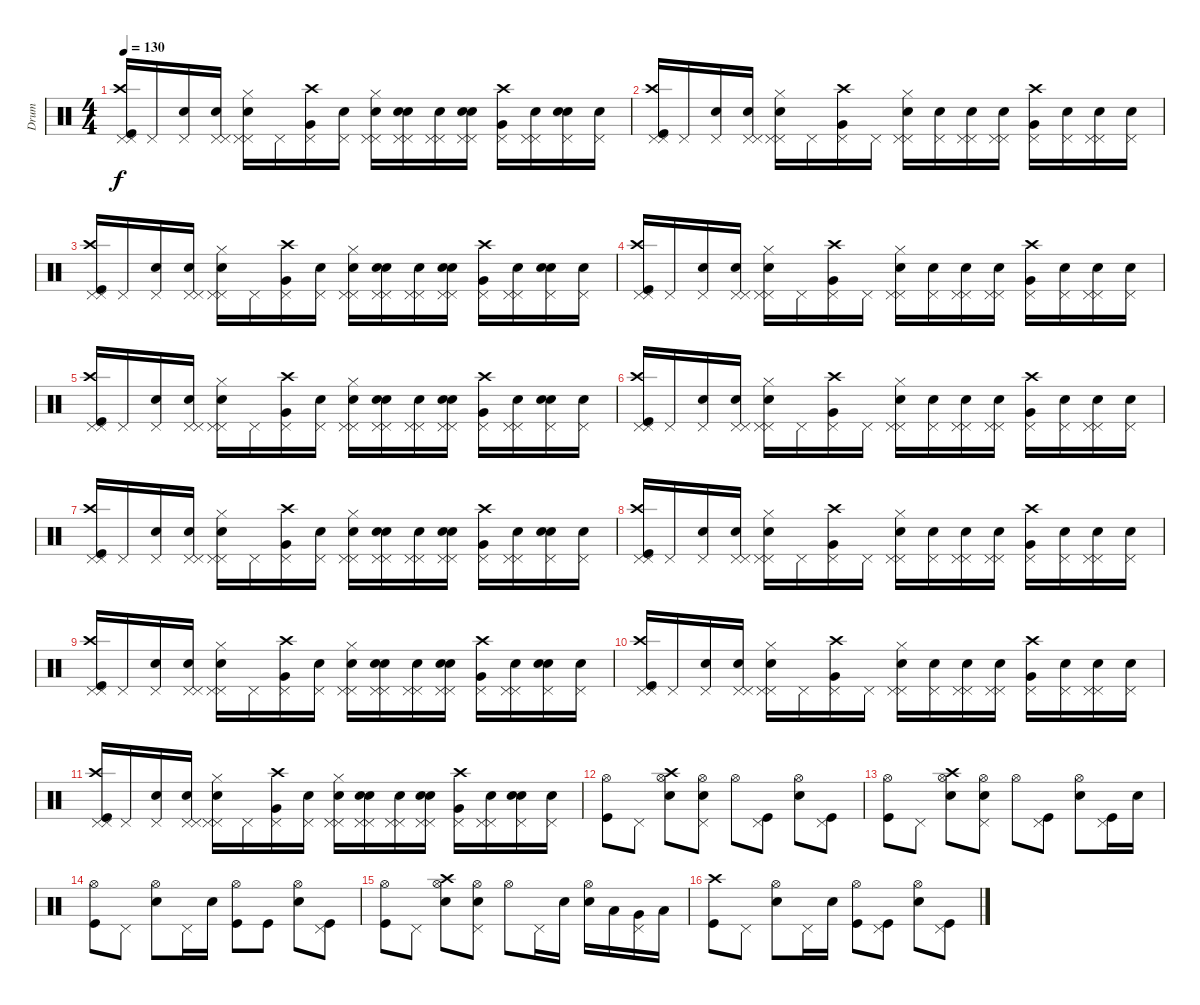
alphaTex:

\track ("Drum" "Drum") {instrument percussion}
\staff {score}
\articulation defaults
\ts (4 4)
\tempo 130
\clef neutral
\ks c
("Kick (hit)" "Crash high (hit)" "Pedal Hi-Hat (hit)" "Pedal Hi-Hat (hit)").16{dy f} "Pedal Hi-Hat (hit)".16 ("Snare (hit) 2" "Pedal Hi-Hat (hit)").16 ("Pedal Hi-Hat (hit)" "Pedal Hi-Hat (hit)" "Snare (hit) 2").16 ("Snare (hit) 2" "Pedal Hi-Hat (hit)" "Hi-Hat (closed)" "Pedal Hi-Hat (hit)").16 "Pedal Hi-Hat (hit)".16 ("Pedal Hi-Hat (hit)" "Very Low Tom (hit)" "Crash high (hit)").16 ("Pedal Hi-Hat (hit)" "Snare (hit) 2").16 ("Snare (hit) 2" "Pedal Hi-Hat (hit)" "Pedal Hi-Hat (hit)" "Hi-Hat (closed)").16 ("Snare (hit) 2" "Snare (hit) 2" "Pedal Hi-Hat (hit)" "Pedal Hi-Hat (hit)").16 ("Snare (hit) 2" "Pedal Hi-Hat (hit)" "Pedal Hi-Hat (hit)").16 ("Snare (hit) 2" "Snare (hit) 2" "Pedal Hi-Hat (hit)" "Pedal Hi-Hat (hit)").16 ("Very Low Tom (hit)" "Pedal Hi-Hat (hit)" "Crash high (hit)").16 ("Snare (hit) 2" "Pedal Hi-Hat (hit)" "Pedal Hi-Hat (hit)").16 ("Snare (hit) 2" "Snare (hit) 2" "Pedal Hi-Hat (hit)").16 ("Snare (hit) 2" "Pedal Hi-Hat (hit)").16 |
("Kick (hit)" "Crash high (hit)" "Pedal Hi-Hat (hit)" "Pedal Hi-Hat (hit)").16 "Pedal Hi-Hat (hit)".16 ("Snare (hit) 2" "Pedal Hi-Hat (hit)").16 ("Pedal Hi-Hat (hit)" "Pedal Hi-Hat (hit)" "Snare (hit) 2").16 ("Snare (hit) 2" "Pedal Hi-Hat (hit)" "Hi-Hat (closed)" "Pedal Hi-Hat (hit)").16 "Pedal Hi-Hat (hit)".16 ("Pedal Hi-Hat (hit)" "Very Low Tom (hit)" "Crash high (hit)").16 "Pedal Hi-Hat (hit)".16 ("Snare (hit) 2" "Pedal Hi-Hat (hit)" "Pedal Hi-Hat (hit)" "Hi-Hat (closed)").16 ("Snare (hit) 2" "Pedal Hi-Hat (hit)").16 ("Snare (hit) 2" "Pedal Hi-Hat (hit)" "Pedal Hi-Hat (hit)").16 ("Snare (hit) 2" "Pedal Hi-Hat (hit)" "Pedal Hi-Hat (hit)").16 ("Very Low Tom (hit)" "Pedal Hi-Hat (hit)" "Crash high (hit)").16 ("Snare (hit) 2" "Pedal Hi-Hat (hit)").16 ("Snare (hit) 2" "Pedal Hi-Hat (hit)" "Pedal Hi-Hat (hit)").16 ("Snare (hit) 2" "Pedal Hi-Hat (hit)").16 |
("Kick (hit)" "Crash high (hit)" "Pedal Hi-Hat (hit)" "Pedal Hi-Hat (hit)").16 "Pedal Hi-Hat (hit)".16 ("Snare (hit) 2" "Pedal Hi-Hat (hit)").16 ("Pedal Hi-Hat (hit)" "Pedal Hi-Hat (hit)" "Snare (hit) 2").16 ("Snare (hit) 2" "Pedal Hi-Hat (hit)" "Hi-Hat (closed)" "Pedal Hi-Hat (hit)").16 "Pedal Hi-Hat (hit)".16 ("Pedal Hi-Hat (hit)" "Very Low Tom (hit)" "Crash high (hit)").16 ("Pedal Hi-Hat (hit)" "Snare (hit) 2").16 ("Snare (hit) 2" "Pedal Hi-Hat (hit)" "Pedal Hi-Hat (hit)" "Hi-Hat (closed)").16 ("Snare (hit) 2" "Snare (hit) 2" "Pedal Hi-Hat (hit)" "Pedal Hi-Hat (hit)").16 ("Snare (hit) 2" "Pedal Hi-Hat (hit)" "Pedal Hi-Hat (hit)").16 ("Snare (hit) 2" "Snare (hit) 2" "Pedal Hi-Hat (hit)" "Pedal Hi-Hat (hit)").16 ("Very Low Tom (hit)" "Pedal Hi-Hat (hit)" "Crash high (hit)").16 ("Snare (hit) 2" "Pedal Hi-Hat (hit)" "Pedal Hi-Hat (hit)").16 ("Snare (hit) 2" "Snare (hit) 2" "Pedal Hi-Hat (hit)").16 ("Snare (hit) 2" "Pedal Hi-Hat (hit)").16 |
("Kick (hit)" "Crash high (hit)" "Pedal Hi-Hat (hit)" "Pedal Hi-Hat (hit)").16 "Pedal Hi-Hat (hit)".16 ("Snare (hit) 2" "Pedal Hi-Hat (hit)").16 ("Pedal Hi-Hat (hit)" "Pedal Hi-Hat (hit)" "Snare (hit) 2").16 ("Snare (hit) 2" "Pedal Hi-Hat (hit)" "Hi-Hat (closed)" "Pedal Hi-Hat (hit)").16 "Pedal Hi-Hat (hit)".16 ("Pedal Hi-Hat (hit)" "Very Low Tom (hit)" "Crash high (hit)").16 "Pedal Hi-Hat (hit)".16 ("Snare (hit) 2" "Pedal Hi-Hat (hit)" "Pedal Hi-Hat (hit)" "Hi-Hat (closed)").16 ("Snare (hit) 2" "Pedal Hi-Hat (hit)").16 ("Snare (hit) 2" "Pedal Hi-Hat (hit)" "Pedal Hi-Hat (hit)").16 ("Snare (hit) 2" "Pedal Hi-Hat (hit)" "Pedal Hi-Hat (hit)").16 ("Very Low Tom (hit)" "Pedal Hi-Hat (hit)" "Crash high (hit)").16 ("Snare (hit) 2" "Pedal Hi-Hat (hit)").16 ("Snare (hit) 2" "Pedal Hi-Hat (hit)" "Pedal Hi-Hat (hit)").16 ("Snare (hit) 2" "Pedal Hi-Hat (hit)").16 |
("Kick (hit)" "Crash high (hit)" "Pedal Hi-Hat (hit)" "Pedal Hi-Hat (hit)").16 "Pedal Hi-Hat (hit)".16 ("Snare (hit) 2" "Pedal Hi-Hat (hit)").16 ("Pedal Hi-Hat (hit)" "Pedal Hi-Hat (hit)" "Snare (hit) 2").16 ("Snare (hit) 2" "Pedal Hi-Hat (hit)" "Hi-Hat (closed)" "Pedal Hi-Hat (hit)").16 "Pedal Hi-Hat (hit)".16 ("Pedal Hi-Hat (hit)" "Very Low Tom (hit)" "Crash high (hit)").16 ("Pedal Hi-Hat (hit)" "Snare (hit) 2").16 ("Snare (hit) 2" "Pedal Hi-Hat (hit)" "Pedal Hi-Hat (hit)" "Hi-Hat (closed)").16 ("Snare (hit) 2" "Snare (hit) 2" "Pedal Hi-Hat (hit)" "Pedal Hi-Hat (hit)").16 ("Snare (hit) 2" "Pedal Hi-Hat (hit)" "Pedal Hi-Hat (hit)").16 ("Snare (hit) 2" "Snare (hit) 2" "Pedal Hi-Hat (hit)" "Pedal Hi-Hat (hit)").16 ("Very Low Tom (hit)" "Pedal Hi-Hat (hit)" "Crash high (hit)").16 ("Snare (hit) 2" "Pedal Hi-Hat (hit)" "Pedal Hi-Hat (hit)").16 ("Snare (hit) 2" "Snare (hit) 2" "Pedal Hi-Hat (hit)").16 ("Snare (hit) 2" "Pedal Hi-Hat (hit)").16 |
("Kick (hit)" "Crash high (hit)" "Pedal Hi-Hat (hit)" "Pedal Hi-Hat (hit)").16 "Pedal Hi-Hat (hit)".16 ("Snare (hit) 2" "Pedal Hi-Hat (hit)").16 ("Pedal Hi-Hat (hit)" "Pedal Hi-Hat (hit)" "Snare (hit) 2").16 ("Snare (hit) 2" "Pedal Hi-Hat (hit)" "Hi-Hat (closed)" "Pedal Hi-Hat (hit)").16 "Pedal Hi-Hat (hit)".16 ("Pedal Hi-Hat (hit)" "Very Low Tom (hit)" "Crash high (hit)").16 "Pedal Hi-Hat (hit)".16 ("Snare (hit) 2" "Pedal Hi-Hat (hit)" "Pedal Hi-Hat (hit)" "Hi-Hat (closed)").16 ("Snare (hit) 2" "Pedal Hi-Hat (hit)").16 ("Snare (hit) 2" "Pedal Hi-Hat (hit)" "Pedal Hi-Hat (hit)").16 ("Snare (hit) 2" "Pedal Hi-Hat (hit)" "Pedal Hi-Hat (hit)").16 ("Very Low Tom (hit)" "Pedal Hi-Hat (hit)" "Crash high (hit)").16 ("Snare (hit) 2" "Pedal Hi-Hat (hit)").16 ("Snare (hit) 2" "Pedal Hi-Hat (hit)" "Pedal Hi-Hat (hit)").16 ("Snare (hit) 2" "Pedal Hi-Hat (hit)").16 |
("Kick (hit)" "Crash high (hit)" "Pedal Hi-Hat (hit)" "Pedal Hi-Hat (hit)").16 "Pedal Hi-Hat (hit)".16 ("Snare (hit) 2" "Pedal Hi-Hat (hit)").16 ("Pedal Hi-Hat (hit)" "Pedal Hi-Hat (hit)" "Snare (hit) 2").16 ("Snare (hit) 2" "Pedal Hi-Hat (hit)" "Hi-Hat (closed)" "Pedal Hi-Hat (hit)").16 "Pedal Hi-Hat (hit)".16 ("Pedal Hi-Hat (hit)" "Very Low Tom (hit)" "Crash high (hit)").16 ("Pedal Hi-Hat (hit)" "Snare (hit) 2").16 ("Snare (hit) 2" "Pedal Hi-Hat (hit)" "Pedal Hi-Hat (hit)" "Hi-Hat (closed)").16 ("Snare (hit) 2" "Snare (hit) 2" "Pedal Hi-Hat (hit)" "Pedal Hi-Hat (hit)").16 ("Snare (hit) 2" "Pedal Hi-Hat (hit)" "Pedal Hi-Hat (hit)").16 ("Snare (hit) 2" "Snare (hit) 2" "Pedal Hi-Hat (hit)" "Pedal Hi-Hat (hit)").16 ("Very Low Tom (hit)" "Pedal Hi-Hat (hit)" "Crash high (hit)").16 ("Snare (hit) 2" "Pedal Hi-Hat (hit)" "Pedal Hi-Hat (hit)").16 ("Snare (hit) 2" "Snare (hit) 2" "Pedal Hi-Hat (hit)").16 ("Snare (hit) 2" "Pedal Hi-Hat (hit)").16 |
("Kick (hit)" "Crash high (hit)" "Pedal Hi-Hat (hit)" "Pedal Hi-Hat (hit)").16 "Pedal Hi-Hat (hit)".16 ("Snare (hit) 2" "Pedal Hi-Hat (hit)").16 ("Pedal Hi-Hat (hit)" "Pedal Hi-Hat (hit)" "Snare (hit) 2").16 ("Snare (hit) 2" "Pedal Hi-Hat (hit)" "Hi-Hat (closed)" "Pedal Hi-Hat (hit)").16 "Pedal Hi-Hat (hit)".16 ("Pedal Hi-Hat (hit)" "Very Low Tom (hit)" "Crash high (hit)").16 "Pedal Hi-Hat (hit)".16 ("Snare (hit) 2" "Pedal Hi-Hat (hit)" "Pedal Hi-Hat (hit)" "Hi-Hat (closed)").16 ("Snare (hit) 2" "Pedal Hi-Hat (hit)").16 ("Snare (hit) 2" "Pedal Hi-Hat (hit)" "Pedal Hi-Hat (hit)").16 ("Snare (hit) 2" "Pedal Hi-Hat (hit)" "Pedal Hi-Hat (hit)").16 ("Very Low Tom (hit)" "Pedal Hi-Hat (hit)" "Crash high (hit)").16 ("Snare (hit) 2" "Pedal Hi-Hat (hit)").16 ("Snare (hit) 2" "Pedal Hi-Hat (hit)" "Pedal Hi-Hat (hit)").16 ("Snare (hit) 2" "Pedal Hi-Hat (hit)").16 |
("Kick (hit)" "Crash high (hit)" "Pedal Hi-Hat (hit)" "Pedal Hi-Hat (hit)").16 "Pedal Hi-Hat (hit)".16 ("Snare (hit) 2" "Pedal Hi-Hat (hit)").16 ("Pedal Hi-Hat (hit)" "Pedal Hi-Hat (hit)" "Snare (hit) 2").16 ("Snare (hit) 2" "Pedal Hi-Hat (hit)" "Hi-Hat (closed)" "Pedal Hi-Hat (hit)").16 "Pedal Hi-Hat (hit)".16 ("Pedal Hi-Hat (hit)" "Very Low Tom (hit)" "Crash high (hit)").16 ("Pedal Hi-Hat (hit)" "Snare (hit) 2").16 ("Snare (hit) 2" "Pedal Hi-Hat (hit)" "Pedal Hi-Hat (hit)" "Hi-Hat (closed)").16 ("Snare (hit) 2" "Snare (hit) 2" "Pedal Hi-Hat (hit)" "Pedal Hi-Hat (hit)").16 ("Snare (hit) 2" "Pedal Hi-Hat (hit)" "Pedal Hi-Hat (hit)").16 ("Snare (hit) 2" "Snare (hit) 2" "Pedal Hi-Hat (hit)" "Pedal Hi-Hat (hit)").16 ("Very Low Tom (hit)" "Pedal Hi-Hat (hit)" "Crash high (hit)").16 ("Snare (hit) 2" "Pedal Hi-Hat (hit)" "Pedal Hi-Hat (hit)").16 ("Snare (hit) 2" "Snare (hit) 2" "Pedal Hi-Hat (hit)").16 ("Snare (hit) 2" "Pedal Hi-Hat (hit)").16 |
("Kick (hit)" "Crash high (hit)" "Pedal Hi-Hat (hit)" "Pedal Hi-Hat (hit)").16 "Pedal Hi-Hat (hit)".16 ("Snare (hit) 2" "Pedal Hi-Hat (hit)").16 ("Pedal Hi-Hat (hit)" "Pedal Hi-Hat (hit)" "Snare (hit) 2").16 ("Snare (hit) 2" "Pedal Hi-Hat (hit)" "Hi-Hat (closed)" "Pedal Hi-Hat (hit)").16 "Pedal Hi-Hat (hit)".16 ("Pedal Hi-Hat (hit)" "Very Low Tom (hit)" "Crash high (hit)").16 "Pedal Hi-Hat (hit)".16 ("Snare (hit) 2" "Pedal Hi-Hat (hit)" "Pedal Hi-Hat (hit)" "Hi-Hat (closed)").16 ("Snare (hit) 2" "Pedal Hi-Hat (hit)").16 ("Snare (hit) 2" "Pedal Hi-Hat (hit)" "Pedal Hi-Hat (hit)").16 ("Snare (hit) 2" "Pedal Hi-Hat (hit)" "Pedal Hi-Hat (hit)").16 ("Very Low Tom (hit)" "Pedal Hi-Hat (hit)" "Crash high (hit)").16 ("Snare (hit) 2" "Pedal Hi-Hat (hit)").16 ("Snare (hit) 2" "Pedal Hi-Hat (hit)" "Pedal Hi-Hat (hit)").16 ("Snare (hit) 2" "Pedal Hi-Hat (hit)").16 |
("Kick (hit)" "Crash high (hit)" "Pedal Hi-Hat (hit)" "Pedal Hi-Hat (hit)").16 "Pedal Hi-Hat (hit)".16 ("Snare (hit) 2" "Pedal Hi-Hat (hit)").16 ("Pedal Hi-Hat (hit)" "Pedal Hi-Hat (hit)" "Snare (hit) 2").16 ("Snare (hit) 2" "Pedal Hi-Hat (hit)" "Hi-Hat (closed)" "Pedal Hi-Hat (hit)").16 "Pedal Hi-Hat (hit)".16 ("Pedal Hi-Hat (hit)" "Very Low Tom (hit)" "Crash high (hit)").16 ("Pedal Hi-Hat (hit)" "Snare (hit) 2").16 ("Snare (hit) 2" "Pedal Hi-Hat (hit)" "Pedal Hi-Hat (hit)" "Hi-Hat (closed)").16 ("Snare (hit) 2" "Snare (hit) 2" "Pedal Hi-Hat (hit)" "Pedal Hi-Hat (hit)").16 ("Snare (hit) 2" "Pedal Hi-Hat (hit)" "Pedal Hi-Hat (hit)").16 ("Snare (hit) 2" "Snare (hit) 2" "Pedal Hi-Hat (hit)" "Pedal Hi-Hat (hit)").16 ("Very Low Tom (hit)" "Pedal Hi-Hat (hit)" "Crash high (hit)").16 ("Snare (hit) 2" "Pedal Hi-Hat (hit)" "Pedal Hi-Hat (hit)").16 ("Snare (hit) 2" "Snare (hit) 2" "Pedal Hi-Hat (hit)").16 ("Snare (hit) 2" "Pedal Hi-Hat (hit)").16 |
("Kick (hit)" "Hi-Hat (open)").8 "Pedal Hi-Hat (hit)".8 ("Snare (hit) 2" "Hi-Hat (open)" "Crash high (hit)").8 ("Snare (hit) 2" "Hi-Hat (open)" "Pedal Hi-Hat (hit)").8 "Hi-Hat (open)".8 ("Kick (hit)" "Pedal Hi-Hat (hit)").8 ("Hi-Hat (open)" "Snare (hit) 2").8 ("Kick (hit)" "Pedal Hi-Hat (hit)").8 |
("Kick (hit)" "Hi-Hat (open)").8 "Pedal Hi-Hat (hit)".8 ("Snare (hit) 2" "Hi-Hat (open)" "Crash high (hit)").8 ("Snare (hit) 2" "Hi-Hat (open)" "Pedal Hi-Hat (hit)").8 "Hi-Hat (open)".8 ("Kick (hit)" "Pedal Hi-Hat (hit)").8 ("Hi-Hat (open)" "Snare (hit) 2").8 ("Kick (hit)" "Pedal Hi-Hat (hit)").16 "Snare (hit) 2".16 |
("Kick (hit)" "Hi-Hat (open)").8 "Pedal Hi-Hat (hit)".8 ("Snare (hit) 2" "Hi-Hat (open)").8 "Pedal Hi-Hat (hit)".16 "Snare (hit) 2".16 ("Kick (hit)" "Hi-Hat (open)").8 "Kick (hit)".8 ("Snare (hit) 2" "Hi-Hat (open)").8 ("Kick (hit)" "Pedal Hi-Hat (hit)").8 |
("Kick (hit)" "Hi-Hat (open)").8 "Pedal Hi-Hat (hit)".8 ("Snare (hit) 2" "Hi-Hat (open)" "Crash high (hit)").8 ("Snare (hit) 2" "Hi-Hat (open)" "Pedal Hi-Hat (hit)").8 "Hi-Hat (open)".8 "Pedal Hi-Hat (hit)".16 "Snare (hit) 2".16 ("Hi-Hat (open)" "Snare (hit) 2").16 "Low Tom (hit)".16 ("Pedal Hi-Hat (hit)" "Very Low Tom (hit)").16 "Low Floor Tom (hit)".16 |
("Kick (hit)" "Crash high (hit)").8 "Pedal Hi-Hat (hit)".8 ("Snare (hit) 2" "Hi-Hat (open)").8 "Pedal Hi-Hat (hit)".16 "Snare (hit) 2".16 ("Kick (hit)" "Hi-Hat (open)").8 ("Kick (hit)" "Pedal Hi-Hat (hit)").8 ("Snare (hit) 2" "Hi-Hat (open)").8 ("Kick (hit)" "Pedal Hi-Hat (hit)").8
